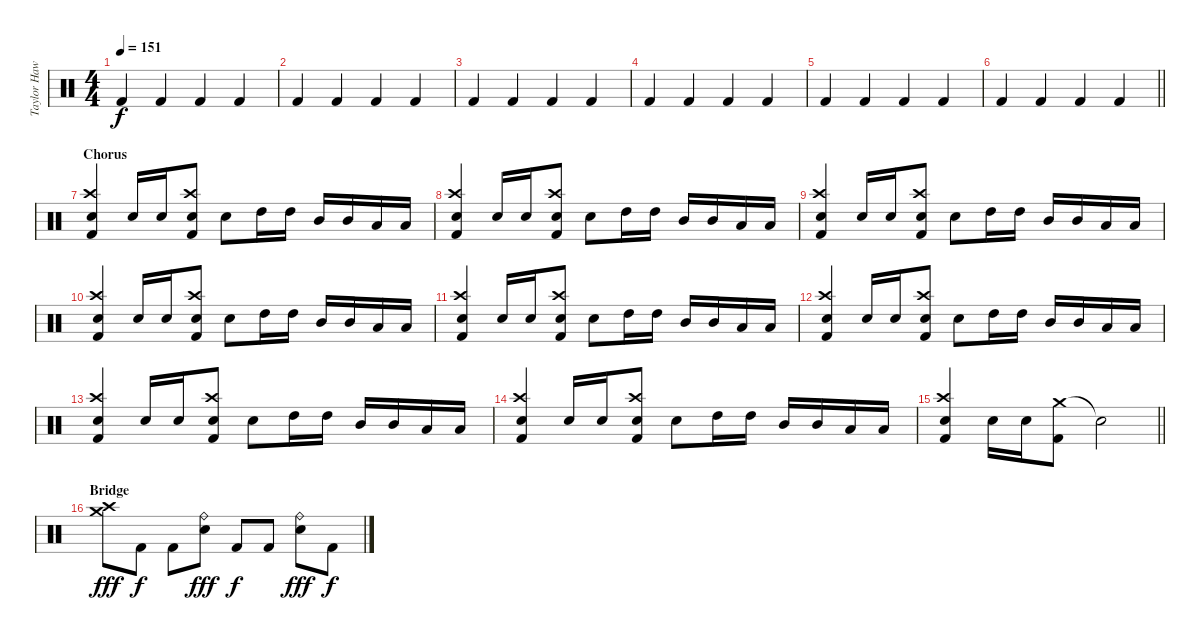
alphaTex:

\track ("Taylor Hawkins" "Taylor Haw") {instrument percussion}
\staff {score}
\articulation defaults
\ts (4 4)
\tempo 151
\clef neutral
\ks c "Kick (hit) 2".4{dy f} "Kick (hit) 2".4 "Kick (hit) 2".4 "Kick (hit) 2".4
|
"Kick (hit) 2".4 "Kick (hit) 2".4 "Kick (hit) 2".4 "Kick (hit) 2".4 |
"Kick (hit) 2".4 "Kick (hit) 2".4 "Kick (hit) 2".4 "Kick (hit) 2".4 |
"Kick (hit) 2".4 "Kick (hit) 2".4 "Kick (hit) 2".4 "Kick (hit) 2".4 |
"Kick (hit) 2".4 "Kick (hit) 2".4 "Kick (hit) 2".4 "Kick (hit) 2".4 |
\barLineRight lightlight "Kick (hit) 2".4 "Kick (hit) 2".4 "Kick (hit) 2".4 "Kick (hit) 2".4
|
\section ("" "Chorus")
("Crash high (hit)" "Electric Snare (hit)" "Kick (hit) 2").4 "Electric Snare (hit)".16 "Electric Snare (hit)".16 ("Crash high (hit)" "Electric Snare (hit)" "Kick (hit) 2").8 "Electric Snare (hit)".8 "High Tom (hit)".16 "High Tom (hit)".16 "Mid Tom (hit)".16 "Mid Tom (hit)".16 "Low Tom (hit)".16 "Low Tom (hit)".16 |
("Crash high (hit)" "Electric Snare (hit)" "Kick (hit) 2").4 "Electric Snare (hit)".16 "Electric Snare (hit)".16 ("Crash high (hit)" "Electric Snare (hit)" "Kick (hit) 2").8 "Electric Snare (hit)".8 "High Tom (hit)".16 "High Tom (hit)".16 "Mid Tom (hit)".16 "Mid Tom (hit)".16 "Low Tom (hit)".16 "Low Tom (hit)".16 |
("Crash high (hit)" "Electric Snare (hit)" "Kick (hit) 2").4 "Electric Snare (hit)".16 "Electric Snare (hit)".16 ("Crash high (hit)" "Electric Snare (hit)" "Kick (hit) 2").8 "Electric Snare (hit)".8 "High Tom (hit)".16 "High Tom (hit)".16 "Mid Tom (hit)".16 "Mid Tom (hit)".16 "Low Tom (hit)".16 "Low Tom (hit)".16 |
("Crash high (hit)" "Electric Snare (hit)" "Kick (hit) 2").4 "Electric Snare (hit)".16 "Electric Snare (hit)".16 ("Crash high (hit)" "Electric Snare (hit)" "Kick (hit) 2").8 "Electric Snare (hit)".8 "High Tom (hit)".16 "High Tom (hit)".16 "Mid Tom (hit)".16 "Mid Tom (hit)".16 "Low Tom (hit)".16 "Low Tom (hit)".16 |
("Crash high (hit)" "Electric Snare (hit)" "Kick (hit) 2").4 "Electric Snare (hit)".16 "Electric Snare (hit)".16 ("Crash high (hit)" "Electric Snare (hit)" "Kick (hit) 2").8 "Electric Snare (hit)".8 "High Tom (hit)".16 "High Tom (hit)".16 "Mid Tom (hit)".16 "Mid Tom (hit)".16 "Low Tom (hit)".16 "Low Tom (hit)".16 |
("Crash high (hit)" "Electric Snare (hit)" "Kick (hit) 2").4 "Electric Snare (hit)".16 "Electric Snare (hit)".16 ("Crash high (hit)" "Electric Snare (hit)" "Kick (hit) 2").8 "Electric Snare (hit)".8 "High Tom (hit)".16 "High Tom (hit)".16 "Mid Tom (hit)".16 "Mid Tom (hit)".16 "Low Tom (hit)".16 "Low Tom (hit)".16 |
("Crash high (hit)" "Electric Snare (hit)" "Kick (hit) 2").4 "Electric Snare (hit)".16 "Electric Snare (hit)".16 ("Crash high (hit)" "Electric Snare (hit)" "Kick (hit) 2").8 "Electric Snare (hit)".8 "High Tom (hit)".16 "High Tom (hit)".16 "Mid Tom (hit)".16 "Mid Tom (hit)".16 "Low Tom (hit)".16 "Low Tom (hit)".16 |
("Crash high (hit)" "Electric Snare (hit)" "Kick (hit) 2").4 "Electric Snare (hit)".16 "Electric Snare (hit)".16 ("Crash high (hit)" "Electric Snare (hit)" "Kick (hit) 2").8 "Electric Snare (hit)".8 "High Tom (hit)".16 "High Tom (hit)".16 "Mid Tom (hit)".16 "Mid Tom (hit)".16 "Low Tom (hit)".16 "Low Tom (hit)".16 |
\barLineRight lightlight
("Crash high (hit)" "Electric Snare (hit)" "Kick (hit) 2").4 "Electric Snare (hit)".16 "Electric Snare (hit)".16 ("Crash medium (hit)" "Kick (hit) 2").8 "Snare (hit)"{t}.2 |
\section ("" "Bridge")
("Crash medium (hit)" "Crash high (hit)").8{dy fff} "Kick (hit) 2".8{dy f} "Kick (hit) 2".8 ("Ride (bell)" "Electric Snare (hit)").8{dy fff} "Kick (hit) 2".8{dy f} "Kick (hit) 2".8 ("Ride (bell)" "Electric Snare (hit)").8{dy fff} "Kick (hit) 2".8{dy f}
